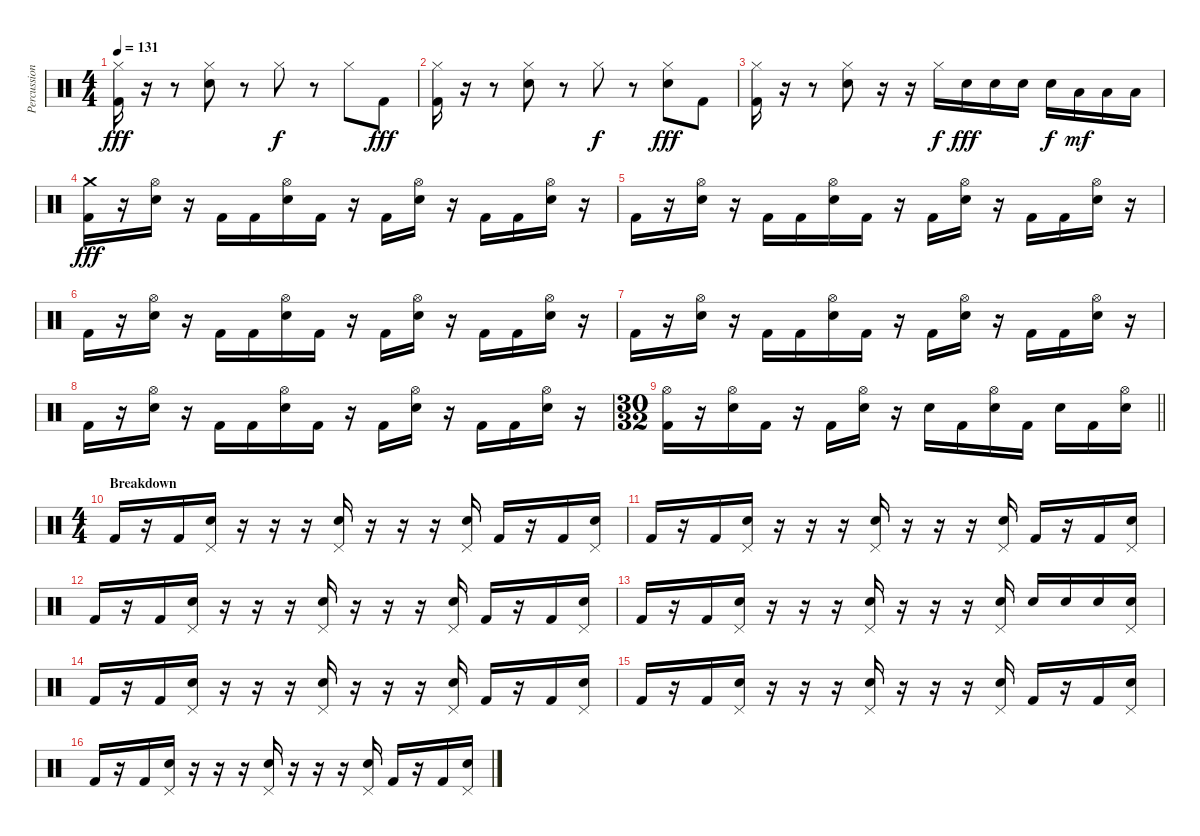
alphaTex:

\track ("Percussion" "Percussion") {instrument percussion}
\staff {score}
\articulation defaults
\ts (4 4)
\tempo 131
\clef neutral
\ks c
("Hi-Hat (closed)" "Kick (hit) 2").16{dy fff} r.16 r.8 ("Hi-Hat (closed)" "Snare (hit) 2").8 r.8 "Hi-Hat (closed)".8{dy f} r.8 "Hi-Hat (closed)".8 "Kick (hit) 2".8{dy fff} |
("Hi-Hat (closed)" "Kick (hit) 2").16 r.16 r.8 ("Hi-Hat (closed)" "Snare (hit) 2").8 r.8 "Hi-Hat (closed)".8{dy f} r.8 ("Hi-Hat (closed)" "Snare (hit) 2").8{dy fff} "Kick (hit) 2".8 |
("Hi-Hat (closed)" "Kick (hit) 2").16 r.16 r.8 ("Hi-Hat (closed)" "Snare (hit) 2").8 r.16 r.16 "Hi-Hat (closed)".16{dy f} "Snare (hit) 2".16{dy fff} "Snare (hit) 2".16 "Snare (hit) 2".16 "Snare (hit) 2".16{dy f} "Low Tom (hit)".16{dy mf} "Low Tom (hit)".16 "Low Tom (hit)".16 |
("Crash medium (hit)" "Kick (hit) 2").16{dy fff} r.16 ("Hi-Hat (open)" "Snare (hit) 2").16 r.16 "Kick (hit) 2".16 "Kick (hit) 2".16 ("Hi-Hat (open)" "Snare (hit) 2").16 "Kick (hit) 2".16 r.16 "Kick (hit) 2".16 ("Hi-Hat (open)" "Snare (hit) 2").16 r.16 "Kick (hit) 2".16 "Kick (hit) 2".16 ("Hi-Hat (open)" "Snare (hit) 2").16 r.16 |
"Kick (hit) 2".16 r.16 ("Hi-Hat (open)" "Snare (hit) 2").16 r.16 "Kick (hit) 2".16 "Kick (hit) 2".16 ("Hi-Hat (open)" "Snare (hit) 2").16 "Kick (hit) 2".16 r.16 "Kick (hit) 2".16 ("Hi-Hat (open)" "Snare (hit) 2").16 r.16 "Kick (hit) 2".16 "Kick (hit) 2".16 ("Hi-Hat (open)" "Snare (hit) 2").16 r.16 |
"Kick (hit) 2".16 r.16 ("Hi-Hat (open)" "Snare (hit) 2").16 r.16 "Kick (hit) 2".16 "Kick (hit) 2".16 ("Hi-Hat (open)" "Snare (hit) 2").16 "Kick (hit) 2".16 r.16 "Kick (hit) 2".16 ("Hi-Hat (open)" "Snare (hit) 2").16 r.16 "Kick (hit) 2".16 "Kick (hit) 2".16 ("Hi-Hat (open)" "Snare (hit) 2").16 r.16 |
"Kick (hit) 2".16 r.16 ("Hi-Hat (open)" "Snare (hit) 2").16 r.16 "Kick (hit) 2".16 "Kick (hit) 2".16 ("Hi-Hat (open)" "Snare (hit) 2").16 "Kick (hit) 2".16 r.16 "Kick (hit) 2".16 ("Hi-Hat (open)" "Snare (hit) 2").16 r.16 "Kick (hit) 2".16 "Kick (hit) 2".16 ("Hi-Hat (open)" "Snare (hit) 2").16 r.16 |
"Kick (hit) 2".16 r.16 ("Hi-Hat (open)" "Snare (hit) 2").16 r.16 "Kick (hit) 2".16 "Kick (hit) 2".16 ("Hi-Hat (open)" "Snare (hit) 2").16 "Kick (hit) 2".16 r.16 "Kick (hit) 2".16 ("Hi-Hat (open)" "Snare (hit) 2").16 r.16 "Kick (hit) 2".16 "Kick (hit) 2".16 ("Hi-Hat (open)" "Snare (hit) 2").16 r.16 |
\ts (30 32)
\barLineRight lightlight
("Hi-Hat (open)" "Kick (hit) 2").16 r.16 ("Hi-Hat (open)" "Snare (hit) 2").16 "Kick (hit) 2".16 r.16 "Kick (hit) 2".16 ("Hi-Hat (open)" "Snare (hit) 2").16 r.16 "Snare (hit) 2".16 "Kick (hit) 2".16 ("Hi-Hat (open)" "Snare (hit) 2").16 "Kick (hit) 2".16 "Snare (hit) 2".16 "Kick (hit) 2".16 ("Hi-Hat (open)" "Snare (hit) 2").16 |
\ts (4 4)
\section ("" "Breakdown")
"Kick (hit) 2".16 r.16 "Kick (hit) 2".16 ("Pedal Hi-Hat (hit)" "Snare (hit) 2").16 r.16 r.16 r.16 ("Pedal Hi-Hat (hit)" "Snare (hit) 2").16 r.16 r.16 r.16 ("Pedal Hi-Hat (hit)" "Snare (hit) 2").16 "Kick (hit) 2".16 r.16 "Kick (hit) 2".16 ("Pedal Hi-Hat (hit)" "Snare (hit) 2").16 |
"Kick (hit) 2".16 r.16 "Kick (hit) 2".16 ("Pedal Hi-Hat (hit)" "Snare (hit) 2").16 r.16 r.16 r.16 ("Pedal Hi-Hat (hit)" "Snare (hit) 2").16 r.16 r.16 r.16 ("Pedal Hi-Hat (hit)" "Snare (hit) 2").16 "Kick (hit) 2".16 r.16 "Kick (hit) 2".16 ("Pedal Hi-Hat (hit)" "Snare (hit) 2").16 |
"Kick (hit) 2".16 r.16 "Kick (hit) 2".16 ("Pedal Hi-Hat (hit)" "Snare (hit) 2").16 r.16 r.16 r.16 ("Pedal Hi-Hat (hit)" "Snare (hit) 2").16 r.16 r.16 r.16 ("Pedal Hi-Hat (hit)" "Snare (hit) 2").16 "Kick (hit) 2".16 r.16 "Kick (hit) 2".16 ("Pedal Hi-Hat (hit)" "Snare (hit) 2").16 |
"Kick (hit) 2".16 r.16 "Kick (hit) 2".16 ("Pedal Hi-Hat (hit)" "Snare (hit) 2").16 r.16 r.16 r.16 ("Pedal Hi-Hat (hit)" "Snare (hit) 2").16 r.16 r.16 r.16 ("Pedal Hi-Hat (hit)" "Snare (hit) 2").16 "Snare (hit) 2".16 "Snare (hit) 2".16 "Snare (hit) 2".16 ("Pedal Hi-Hat (hit)" "Snare (hit) 2").16 |
"Kick (hit) 2".16 r.16 "Kick (hit) 2".16 ("Pedal Hi-Hat (hit)" "Snare (hit) 2").16 r.16 r.16 r.16 ("Pedal Hi-Hat (hit)" "Snare (hit) 2").16 r.16 r.16 r.16 ("Pedal Hi-Hat (hit)" "Snare (hit) 2").16 "Kick (hit) 2".16 r.16 "Kick (hit) 2".16 ("Pedal Hi-Hat (hit)" "Snare (hit) 2").16 |
"Kick (hit) 2".16 r.16 "Kick (hit) 2".16 ("Pedal Hi-Hat (hit)" "Snare (hit) 2").16 r.16 r.16 r.16 ("Pedal Hi-Hat (hit)" "Snare (hit) 2").16 r.16 r.16 r.16 ("Pedal Hi-Hat (hit)" "Snare (hit) 2").16 "Kick (hit) 2".16 r.16 "Kick (hit) 2".16 ("Pedal Hi-Hat (hit)" "Snare (hit) 2").16 |
"Kick (hit) 2".16 r.16 "Kick (hit) 2".16 ("Pedal Hi-Hat (hit)" "Snare (hit) 2").16 r.16 r.16 r.16 ("Pedal Hi-Hat (hit)" "Snare (hit) 2").16 r.16 r.16 r.16 ("Pedal Hi-Hat (hit)" "Snare (hit) 2").16 "Kick (hit) 2".16 r.16 "Kick (hit) 2".16 ("Pedal Hi-Hat (hit)" "Snare (hit) 2").16
